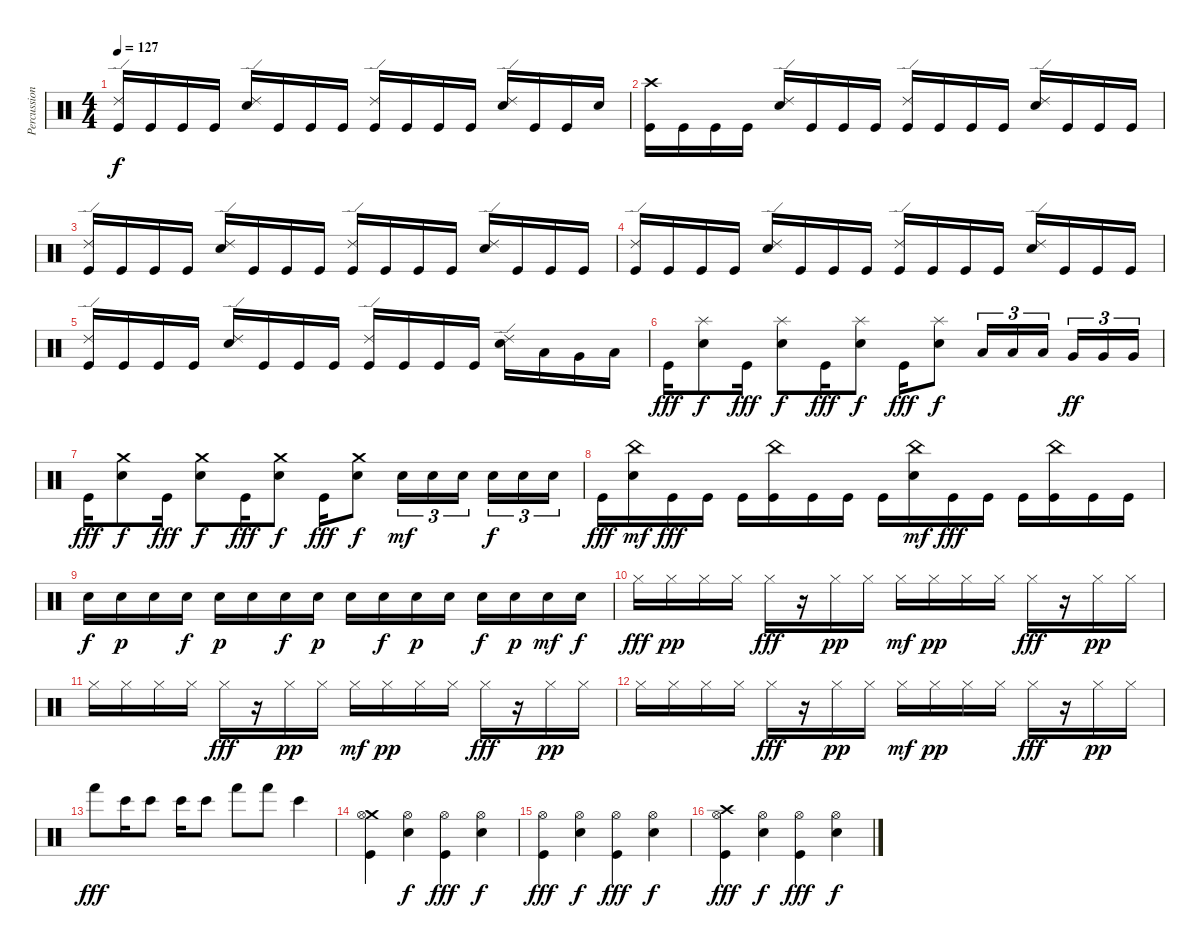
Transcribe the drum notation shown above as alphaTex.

\track ("Percussion" "Percussion") {instrument percussion}
\staff {score}
\articulation defaults
\ts (4 4)
\tempo 127
\clef neutral
\ks c
("Ride (edge) 2" "Kick (hit)").16{dy f} "Kick (hit)".16 "Kick (hit)".16 "Kick (hit)".16 ("Ride (edge) 2" "Electric Snare (hit)").16 "Kick (hit)".16 "Kick (hit)".16 "Kick (hit)".16 ("Ride (edge) 2" "Kick (hit)").16 "Kick (hit)".16 "Kick (hit)".16 "Kick (hit)".16 ("Ride (edge) 2" "Electric Snare (hit)").16 "Kick (hit)".16 "Kick (hit)".16 "Electric Snare (hit)".16 |
("Crash high (hit)" "Kick (hit)").16 "Kick (hit)".16 "Kick (hit)".16 "Kick (hit)".16 ("Ride (edge) 2" "Electric Snare (hit)").16 "Kick (hit)".16 "Kick (hit)".16 "Kick (hit)".16 ("Ride (edge) 2" "Kick (hit)").16 "Kick (hit)".16 "Kick (hit)".16 "Kick (hit)".16 ("Ride (edge) 2" "Electric Snare (hit)").16 "Kick (hit)".16 "Kick (hit)".16 "Kick (hit)".16 |
("Ride (edge) 2" "Kick (hit)").16 "Kick (hit)".16 "Kick (hit)".16 "Kick (hit)".16 ("Ride (edge) 2" "Electric Snare (hit)").16 "Kick (hit)".16 "Kick (hit)".16 "Kick (hit)".16 ("Ride (edge) 2" "Kick (hit)").16 "Kick (hit)".16 "Kick (hit)".16 "Kick (hit)".16 ("Ride (edge) 2" "Electric Snare (hit)").16 "Kick (hit)".16 "Kick (hit)".16 "Kick (hit)".16 |
("Ride (edge) 2" "Kick (hit)").16 "Kick (hit)".16 "Kick (hit)".16 "Kick (hit)".16 ("Ride (edge) 2" "Electric Snare (hit)").16 "Kick (hit)".16 "Kick (hit)".16 "Kick (hit)".16 ("Ride (edge) 2" "Kick (hit)").16 "Kick (hit)".16 "Kick (hit)".16 "Kick (hit)".16 ("Ride (edge) 2" "Electric Snare (hit)").16 "Kick (hit)".16 "Kick (hit)".16 "Kick (hit)".16 |
("Ride (edge) 2" "Kick (hit)").16 "Kick (hit)".16 "Kick (hit)".16 "Kick (hit)".16 ("Ride (edge) 2" "Electric Snare (hit)").16 "Kick (hit)".16 "Kick (hit)".16 "Kick (hit)".16 ("Ride (edge) 2" "Kick (hit)").16 "Kick (hit)".16 "Kick (hit)".16 "Kick (hit)".16 ("Ride (edge) 2" "Electric Snare (hit)").16 "Low Tom (hit)".16 "Very Low Tom (hit)".16 "Low Floor Tom (hit)".16 |
"Kick (hit)".16{dy fff} ("Splash (hit)" "Electric Snare (hit)").8{dy f} "Kick (hit)".16{dy fff} ("Splash (hit)" "Electric Snare (hit)").8{dy f} "Kick (hit)".16{dy fff} ("Splash (hit)" "Electric Snare (hit)").8{dy f} "Kick (hit)".16{dy fff} ("Splash (hit)" "Electric Snare (hit)").8{dy f} "Low Tom (hit)".16{tu (3 2)} "Low Tom (hit)".16{tu (3 2)} "Low Tom (hit)".16{tu (3 2)} "Very Low Tom (hit)".16{tu (3 2) dy ff} "Very Low Tom (hit)".16{tu (3 2)} "Very Low Tom (hit)".16{tu (3 2)} |
"Kick (hit)".16{dy fff} ("Crash medium (hit)" "Electric Snare (hit)").8{dy f} "Kick (hit)".16{dy fff} ("Crash medium (hit)" "Electric Snare (hit)").8{dy f} "Kick (hit)".16{dy fff} ("Crash medium (hit)" "Electric Snare (hit)").8{dy f} "Kick (hit)".16{dy fff} ("Crash medium (hit)" "Electric Snare (hit)").8{dy f} "Electric Snare (hit)".16{tu (3 2) dy mf} "Electric Snare (hit)".16{tu (3 2)} "Electric Snare (hit)".16{tu (3 2)} "Electric Snare (hit)".16{tu (3 2) dy f} "Electric Snare (hit)".16{tu (3 2)} "Electric Snare (hit)".16{tu (3 2)} |
"Kick (hit)".16{dy fff} ("China (hit)" "Electric Snare (hit)").16{dy mf} "Kick (hit)".16{dy fff} "Kick (hit)".16 "Kick (hit)".16 ("China (hit)" "Kick (hit)").16 "Kick (hit)".16 "Kick (hit)".16 "Kick (hit)".16 ("China (hit)" "Electric Snare (hit)").16{dy mf} "Kick (hit)".16{dy fff} "Kick (hit)".16 "Kick (hit)".16 ("China (hit)" "Kick (hit)").16 "Kick (hit)".16 "Kick (hit)".16 |
"Electric Snare (hit)".16{dy f} "Electric Snare (hit)".16{dy p} "Electric Snare (hit)".16 "Electric Snare (hit)".16{dy f} "Electric Snare (hit)".16{dy p} "Electric Snare (hit)".16 "Electric Snare (hit)".16{dy f} "Electric Snare (hit)".16{dy p} "Electric Snare (hit)".16 "Electric Snare (hit)".16{dy f} "Electric Snare (hit)".16{dy p} "Electric Snare (hit)".16 "Electric Snare (hit)".16{dy f} "Electric Snare (hit)".16{dy p} "Electric Snare (hit)".16{dy mf} "Electric Snare (hit)".16{dy f} |
"Hi-Hat (closed)".16{dy fff} "Hi-Hat (closed)".16{dy pp} "Hi-Hat (closed)".16 "Hi-Hat (closed)".16 "Hi-Hat (closed)".16{dy fff} r.16 "Hi-Hat (closed)".16{dy pp} "Hi-Hat (closed)".16 "Hi-Hat (closed)".16{dy mf} "Hi-Hat (closed)".16{dy pp} "Hi-Hat (closed)".16 "Hi-Hat (closed)".16 "Hi-Hat (closed)".16{dy fff} r.16 "Hi-Hat (closed)".16{dy pp} "Hi-Hat (closed)".16 |
"Hi-Hat (closed)".16 "Hi-Hat (closed)".16 "Hi-Hat (closed)".16 "Hi-Hat (closed)".16 "Hi-Hat (closed)".16{dy fff} r.16 "Hi-Hat (closed)".16{dy pp} "Hi-Hat (closed)".16 "Hi-Hat (closed)".16{dy mf} "Hi-Hat (closed)".16{dy pp} "Hi-Hat (closed)".16 "Hi-Hat (closed)".16 "Hi-Hat (closed)".16{dy fff} r.16 "Hi-Hat (closed)".16{dy pp} "Hi-Hat (closed)".16 |
"Hi-Hat (closed)".16 "Hi-Hat (closed)".16 "Hi-Hat (closed)".16 "Hi-Hat (closed)".16 "Hi-Hat (closed)".16{dy fff} r.16 "Hi-Hat (closed)".16{dy pp} "Hi-Hat (closed)".16 "Hi-Hat (closed)".16{dy mf} "Hi-Hat (closed)".16{dy pp} "Hi-Hat (closed)".16 "Hi-Hat (closed)".16 "Hi-Hat (closed)".16{dy fff} r.16 "Hi-Hat (closed)".16{dy pp} "Hi-Hat (closed)".16 |
"Hand (hit)".8{dy fff} "Bongo High (hit)".16 "Bongo High (hit)".8 "Bongo High (hit)".16 "Bongo High (hit)".8 "Hand (hit)".8 "Hand (hit)".8 "Bongo High (hit)".4 |
("Crash medium (hit)" "Hi-Hat (open)" "Kick (hit)").4 ("Electric Snare (hit)" "Hi-Hat (open)").4{dy f} ("Hi-Hat (open)" "Kick (hit)").4{dy fff} ("Electric Snare (hit)" "Hi-Hat (open)").4{dy f} |
("Hi-Hat (open)" "Kick (hit)").4{dy fff} ("Electric Snare (hit)" "Hi-Hat (open)").4{dy f} ("Hi-Hat (open)" "Kick (hit)").4{dy fff} ("Electric Snare (hit)" "Hi-Hat (open)").4{dy f} |
("Crash high (hit)" "Hi-Hat (open)" "Kick (hit)").4{dy fff} ("Electric Snare (hit)" "Hi-Hat (open)").4{dy f} ("Hi-Hat (open)" "Kick (hit)").4{dy fff} ("Electric Snare (hit)" "Hi-Hat (open)").4{dy f}
